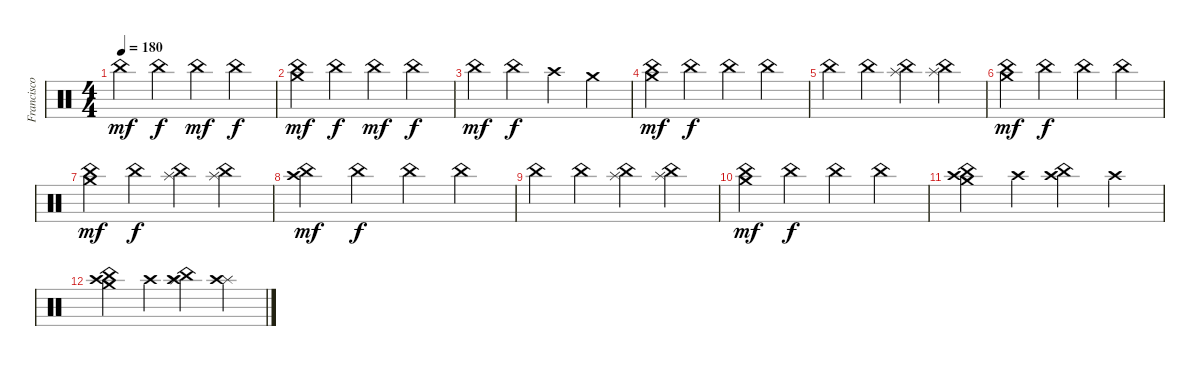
\track ("Francisco Izquierdo (Percusión)" "Francisco ") {instrument percussion}
\staff {score}
\articulation defaults
\ts (4 4)
\tempo 180
\clef neutral
\ks c "China (hit)".4{dy mf} "China (hit)".4{dy f} "China (hit)".4{dy mf} "China (hit)".4{dy f}
|
("China (hit)" "Crash medium (hit)").4{dy mf} "China (hit)".4{dy f} "China (hit)".4{dy mf} "China (hit)".4{dy f} |
"China (hit)".4{dy mf} "China (hit)".4{dy f} "Crash high (hit)".4 "Crash medium (hit)".4 |
("Crash medium (hit)" "China (hit)").4{dy mf} "China (hit)".4{dy f} "China (hit)".4 "China (hit)".4 |
"China (hit)".4 "China (hit)".4 ("Splash (hit)" "China (hit)").4 ("Splash (hit)" "China (hit)").4 |
("Crash medium (hit)" "China (hit)").4{dy mf} "China (hit)".4{dy f} "China (hit)".4 "China (hit)".4 |
("Crash medium (hit)" "China (hit)").4{dy mf} "China (hit)".4{dy f} ("Splash (hit)" "China (hit)").4 ("Splash (hit)" "China (hit)").4 |
("Crash high (hit)" "China (hit)").4{dy mf} "China (hit)".4{dy f} "China (hit)".4 "China (hit)".4 |
"China (hit)".4 "China (hit)".4 ("Splash (hit)" "China (hit)").4 ("Splash (hit)" "China (hit)").4 |
("Crash medium (hit)" "China (hit)").4{dy mf} "China (hit)".4{dy f} "China (hit)".4 "China (hit)".4 |
("Crash medium (hit)" "Crash high (hit)" "China (hit)").4 "Crash high (hit)".4 ("Crash high (hit)" "China (hit)").4 "Crash high (hit)".4 |
("Crash medium (hit)" "Crash high (hit)" "China (hit)").4 "Crash high (hit)".4 ("Splash (hit)" "Crash high (hit)" "China (hit)").4 ("Splash (hit)" "Crash high (hit)").4
